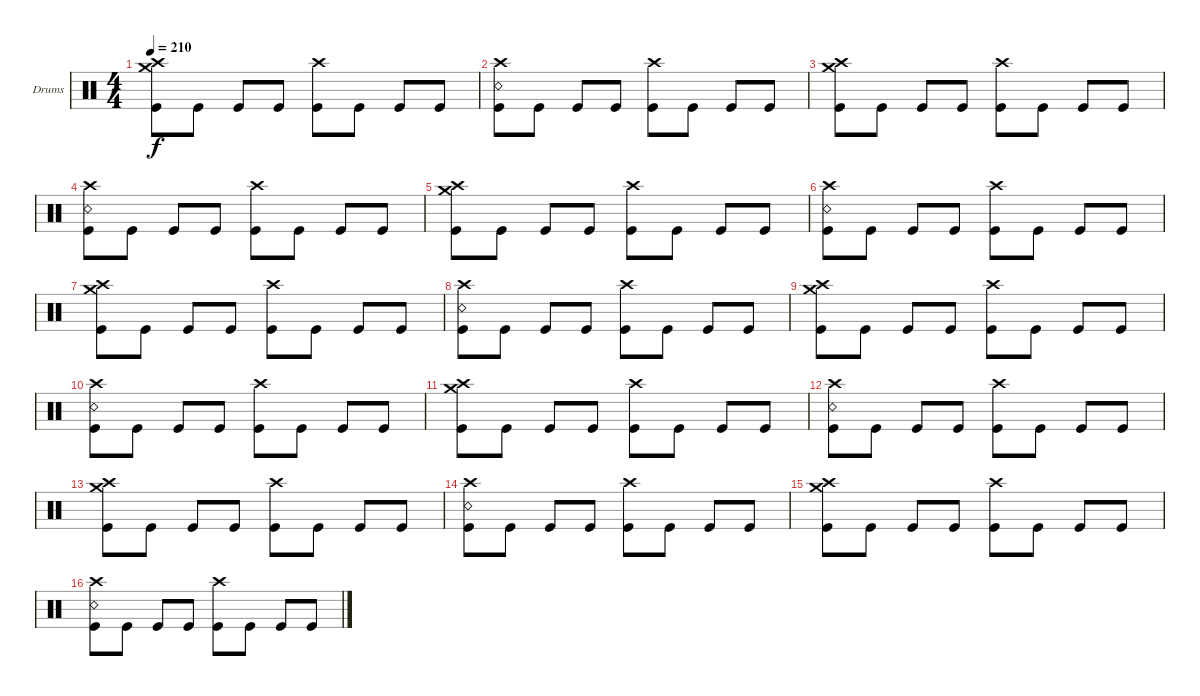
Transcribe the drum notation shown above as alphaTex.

\defaultSystemsLayout 4
\bracketExtendMode groupsimilarinstruments
\firstSystemTrackNameOrientation horizontal
\otherSystemsTrackNameOrientation horizontal
\track ("Drums" "Drums") {instrument percussion}
\staff {score}
\articulation defaults
\ts (4 4)
\tempo 210
\clef neutral
\ks c
("Crash high (hit)" "Kick (hit)" "Crash medium (hit)").8{dy f} "Kick (hit)".8 "Kick (hit)".8 "Kick (hit)".8 ("Kick (hit)" "Crash high (hit)").8 "Kick (hit)".8 "Kick (hit)".8 "Kick (hit)".8 |
("Crash high (hit)" "Kick (hit)" "Snare (rim shot)").8 "Kick (hit)".8 "Kick (hit)".8 "Kick (hit)".8 ("Kick (hit)" "Crash high (hit)").8 "Kick (hit)".8 "Kick (hit)".8 "Kick (hit)".8 |
("Crash high (hit)" "Kick (hit)" "Crash medium (hit)").8 "Kick (hit)".8 "Kick (hit)".8 "Kick (hit)".8 ("Kick (hit)" "Crash high (hit)").8 "Kick (hit)".8 "Kick (hit)".8 "Kick (hit)".8 |
("Crash high (hit)" "Kick (hit)" "Snare (rim shot)").8 "Kick (hit)".8 "Kick (hit)".8 "Kick (hit)".8 ("Kick (hit)" "Crash high (hit)").8 "Kick (hit)".8 "Kick (hit)".8 "Kick (hit)".8 |
("Crash high (hit)" "Kick (hit)" "Crash medium (hit)").8 "Kick (hit)".8 "Kick (hit)".8 "Kick (hit)".8 ("Kick (hit)" "Crash high (hit)").8 "Kick (hit)".8 "Kick (hit)".8 "Kick (hit)".8 |
("Crash high (hit)" "Kick (hit)" "Snare (rim shot)").8 "Kick (hit)".8 "Kick (hit)".8 "Kick (hit)".8 ("Kick (hit)" "Crash high (hit)").8 "Kick (hit)".8 "Kick (hit)".8 "Kick (hit)".8 |
("Crash high (hit)" "Kick (hit)" "Crash medium (hit)").8 "Kick (hit)".8 "Kick (hit)".8 "Kick (hit)".8 ("Kick (hit)" "Crash high (hit)").8 "Kick (hit)".8 "Kick (hit)".8 "Kick (hit)".8 |
("Crash high (hit)" "Kick (hit)" "Snare (rim shot)").8 "Kick (hit)".8 "Kick (hit)".8 "Kick (hit)".8 ("Kick (hit)" "Crash high (hit)").8 "Kick (hit)".8 "Kick (hit)".8 "Kick (hit)".8 |
("Crash high (hit)" "Kick (hit)" "Crash medium (hit)").8 "Kick (hit)".8 "Kick (hit)".8 "Kick (hit)".8 ("Kick (hit)" "Crash high (hit)").8 "Kick (hit)".8 "Kick (hit)".8 "Kick (hit)".8 |
("Crash high (hit)" "Kick (hit)" "Snare (rim shot)").8 "Kick (hit)".8 "Kick (hit)".8 "Kick (hit)".8 ("Kick (hit)" "Crash high (hit)").8 "Kick (hit)".8 "Kick (hit)".8 "Kick (hit)".8 |
("Crash high (hit)" "Kick (hit)" "Crash medium (hit)").8 "Kick (hit)".8 "Kick (hit)".8 "Kick (hit)".8 ("Kick (hit)" "Crash high (hit)").8 "Kick (hit)".8 "Kick (hit)".8 "Kick (hit)".8 |
("Crash high (hit)" "Kick (hit)" "Snare (rim shot)").8 "Kick (hit)".8 "Kick (hit)".8 "Kick (hit)".8 ("Kick (hit)" "Crash high (hit)").8 "Kick (hit)".8 "Kick (hit)".8 "Kick (hit)".8 |
("Crash high (hit)" "Kick (hit)" "Crash medium (hit)").8 "Kick (hit)".8 "Kick (hit)".8 "Kick (hit)".8 ("Kick (hit)" "Crash high (hit)").8 "Kick (hit)".8 "Kick (hit)".8 "Kick (hit)".8 |
("Crash high (hit)" "Kick (hit)" "Snare (rim shot)").8 "Kick (hit)".8 "Kick (hit)".8 "Kick (hit)".8 ("Kick (hit)" "Crash high (hit)").8 "Kick (hit)".8 "Kick (hit)".8 "Kick (hit)".8 |
("Crash high (hit)" "Kick (hit)" "Crash medium (hit)").8 "Kick (hit)".8 "Kick (hit)".8 "Kick (hit)".8 ("Kick (hit)" "Crash high (hit)").8 "Kick (hit)".8 "Kick (hit)".8 "Kick (hit)".8 |
("Crash high (hit)" "Kick (hit)" "Snare (rim shot)").8 "Kick (hit)".8 "Kick (hit)".8 "Kick (hit)".8 ("Kick (hit)" "Crash high (hit)").8 "Kick (hit)".8 "Kick (hit)".8 "Kick (hit)".8
